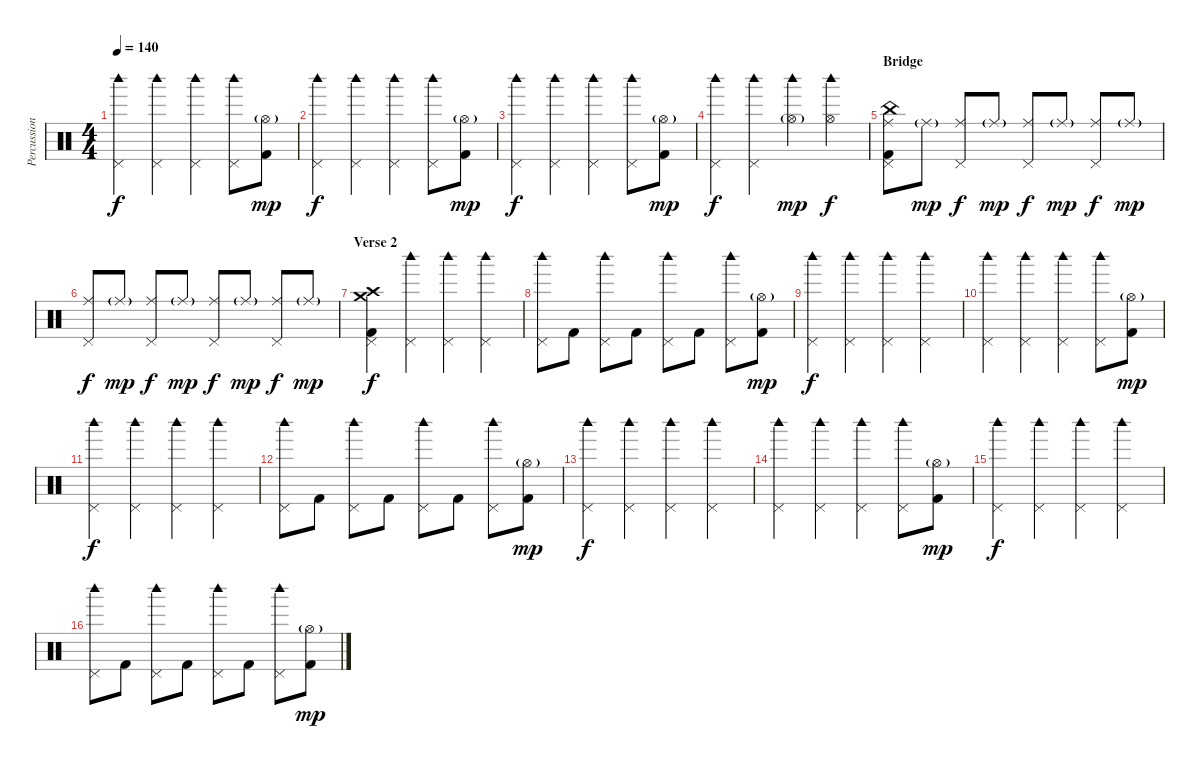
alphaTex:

\track ("Percussion" "Percussion") {instrument percussion}
\staff {score}
\articulation defaults
\ts (4 4)
\tempo 140
\clef neutral
\ks c
("Pedal Hi-Hat (hit)" "Woodblock high (hit)").4{dy f} ("Pedal Hi-Hat (hit)" "Woodblock high (hit)").4 ("Pedal Hi-Hat (hit)" "Woodblock high (hit)").4 ("Pedal Hi-Hat (hit)" "Woodblock high (hit)").8 ("Hi-Hat (open)"{g} "Kick (hit) 2").8{dy mp} |
("Pedal Hi-Hat (hit)" "Woodblock high (hit)").4{dy f} ("Pedal Hi-Hat (hit)" "Woodblock high (hit)").4 ("Pedal Hi-Hat (hit)" "Woodblock high (hit)").4 ("Pedal Hi-Hat (hit)" "Woodblock high (hit)").8 ("Hi-Hat (open)"{g} "Kick (hit) 2").8{dy mp} |
("Pedal Hi-Hat (hit)" "Woodblock high (hit)").4{dy f} ("Pedal Hi-Hat (hit)" "Woodblock high (hit)").4 ("Pedal Hi-Hat (hit)" "Woodblock high (hit)").4 ("Pedal Hi-Hat (hit)" "Woodblock high (hit)").8 ("Hi-Hat (open)"{g} "Kick (hit) 2").8{dy mp} |
("Pedal Hi-Hat (hit)" "Woodblock high (hit)").4{dy f} ("Pedal Hi-Hat (hit)" "Woodblock high (hit)").4 ("Hi-Hat (open)"{g} "Woodblock high (hit)").4{dy mp} ("Hi-Hat (open)" "Woodblock high (hit)").4{dy f} |
\section ("" "Bridge")
("Ride (middle)" "Pedal Hi-Hat (hit)" "China (hit)" "Kick (hit) 2").8 "Ride (middle)"{g}.8{dy mp} ("Ride (middle)" "Pedal Hi-Hat (hit)").8{dy f} "Ride (middle)"{g}.8{dy mp} ("Ride (middle)" "Pedal Hi-Hat (hit)").8{dy f} "Ride (middle)"{g}.8{dy mp} ("Ride (middle)" "Pedal Hi-Hat (hit)").8{dy f} "Ride (middle)"{g}.8{dy mp} |
("Ride (middle)" "Pedal Hi-Hat (hit)").8{dy f} "Ride (middle)"{g}.8{dy mp} ("Ride (middle)" "Pedal Hi-Hat (hit)").8{dy f} "Ride (middle)"{g}.8{dy mp} ("Ride (middle)" "Pedal Hi-Hat (hit)").8{dy f} "Ride (middle)"{g}.8{dy mp} ("Ride (middle)" "Pedal Hi-Hat (hit)").8{dy f} "Ride (middle)"{g}.8{dy mp} |
\section ("" "Verse 2")
("Pedal Hi-Hat (hit)" "Crash high (hit)" "Crash medium (hit)" "Kick (hit) 2").4{dy f} ("Pedal Hi-Hat (hit)" "Woodblock high (hit)").4 ("Pedal Hi-Hat (hit)" "Woodblock high (hit)").4 ("Pedal Hi-Hat (hit)" "Woodblock high (hit)").4 |
("Pedal Hi-Hat (hit)" "Woodblock high (hit)").8 "Kick (hit) 2".8 ("Pedal Hi-Hat (hit)" "Woodblock high (hit)").8 "Kick (hit) 2".8 ("Pedal Hi-Hat (hit)" "Woodblock high (hit)").8 "Kick (hit) 2".8 ("Pedal Hi-Hat (hit)" "Woodblock high (hit)").8 ("Hi-Hat (open)"{g} "Kick (hit) 2").8{dy mp} |
("Pedal Hi-Hat (hit)" "Woodblock high (hit)").4{dy f} ("Pedal Hi-Hat (hit)" "Woodblock high (hit)").4 ("Pedal Hi-Hat (hit)" "Woodblock high (hit)").4 ("Pedal Hi-Hat (hit)" "Woodblock high (hit)").4 |
("Pedal Hi-Hat (hit)" "Woodblock high (hit)").4 ("Pedal Hi-Hat (hit)" "Woodblock high (hit)").4 ("Pedal Hi-Hat (hit)" "Woodblock high (hit)").4 ("Pedal Hi-Hat (hit)" "Woodblock high (hit)").8 ("Hi-Hat (open)"{g} "Kick (hit) 2").8{dy mp} |
("Pedal Hi-Hat (hit)" "Woodblock high (hit)").4{dy f} ("Pedal Hi-Hat (hit)" "Woodblock high (hit)").4 ("Pedal Hi-Hat (hit)" "Woodblock high (hit)").4 ("Pedal Hi-Hat (hit)" "Woodblock high (hit)").4 |
("Pedal Hi-Hat (hit)" "Woodblock high (hit)").8 "Kick (hit) 2".8 ("Pedal Hi-Hat (hit)" "Woodblock high (hit)").8 "Kick (hit) 2".8 ("Pedal Hi-Hat (hit)" "Woodblock high (hit)").8 "Kick (hit) 2".8 ("Pedal Hi-Hat (hit)" "Woodblock high (hit)").8 ("Hi-Hat (open)"{g} "Kick (hit) 2").8{dy mp} |
("Pedal Hi-Hat (hit)" "Woodblock high (hit)").4{dy f} ("Pedal Hi-Hat (hit)" "Woodblock high (hit)").4 ("Pedal Hi-Hat (hit)" "Woodblock high (hit)").4 ("Pedal Hi-Hat (hit)" "Woodblock high (hit)").4 |
("Pedal Hi-Hat (hit)" "Woodblock high (hit)").4 ("Pedal Hi-Hat (hit)" "Woodblock high (hit)").4 ("Pedal Hi-Hat (hit)" "Woodblock high (hit)").4 ("Pedal Hi-Hat (hit)" "Woodblock high (hit)").8 ("Hi-Hat (open)"{g} "Kick (hit) 2").8{dy mp} |
("Pedal Hi-Hat (hit)" "Woodblock high (hit)").4{dy f} ("Pedal Hi-Hat (hit)" "Woodblock high (hit)").4 ("Pedal Hi-Hat (hit)" "Woodblock high (hit)").4 ("Pedal Hi-Hat (hit)" "Woodblock high (hit)").4 |
("Pedal Hi-Hat (hit)" "Woodblock high (hit)").8 "Kick (hit) 2".8 ("Pedal Hi-Hat (hit)" "Woodblock high (hit)").8 "Kick (hit) 2".8 ("Pedal Hi-Hat (hit)" "Woodblock high (hit)").8 "Kick (hit) 2".8 ("Pedal Hi-Hat (hit)" "Woodblock high (hit)").8 ("Hi-Hat (open)"{g} "Kick (hit) 2").8{dy mp}
